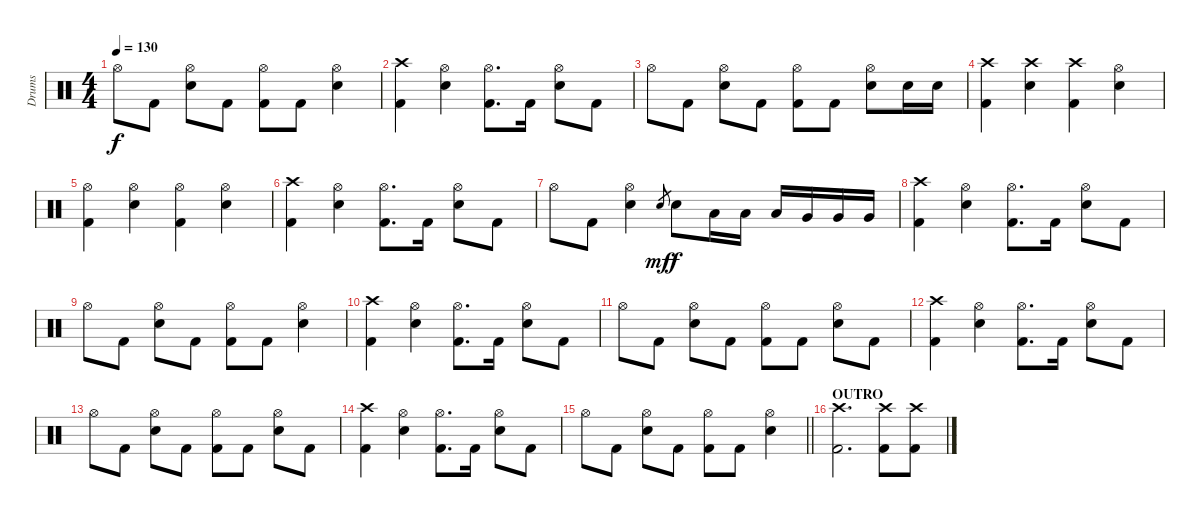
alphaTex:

\track ("Drums" "Drums") {instrument percussion}
\staff {score}
\articulation defaults
\ts (4 4)
\tempo 130
\clef neutral
\ks c "Hi-Hat (open)".8{dy f} "Kick (hit) 2".8
("Hi-Hat (open)" "Electric Snare (hit)").8 "Kick (hit) 2".8 ("Hi-Hat (open)" "Kick (hit) 2").8 "Kick (hit) 2".8 ("Hi-Hat (open)" "Electric Snare (hit)").4 |
("Crash high (hit)" "Kick (hit) 2").4 ("Hi-Hat (open)" "Electric Snare (hit)").4 ("Hi-Hat (open)" "Kick (hit) 2").8{d} "Kick (hit) 2".16 ("Hi-Hat (open)" "Electric Snare (hit)").8 "Kick (hit) 2".8 |
"Hi-Hat (open)".8 "Kick (hit) 2".8 ("Hi-Hat (open)" "Electric Snare (hit)").8 "Kick (hit) 2".8 ("Hi-Hat (open)" "Kick (hit) 2").8 "Kick (hit) 2".8 ("Hi-Hat (open)" "Electric Snare (hit)").8 "Electric Snare (hit)".16 "Electric Snare (hit)".16 |
("Crash high (hit)" "Kick (hit) 2").4 ("Crash high (hit)" "Electric Snare (hit)").4 ("Crash high (hit)" "Kick (hit) 2").4 ("Hi-Hat (open)" "Electric Snare (hit)").4 |
("Hi-Hat (open)" "Kick (hit) 2").4 ("Hi-Hat (open)" "Electric Snare (hit)").4 ("Hi-Hat (open)" "Kick (hit) 2").4 ("Hi-Hat (open)" "Electric Snare (hit)").4 |
("Crash high (hit)" "Kick (hit) 2").4 ("Hi-Hat (open)" "Electric Snare (hit)").4 ("Hi-Hat (open)" "Kick (hit) 2").8{d} "Kick (hit) 2".16 ("Hi-Hat (open)" "Electric Snare (hit)").8 "Kick (hit) 2".8 |
"Hi-Hat (open)".8 "Kick (hit) 2".8 ("Hi-Hat (open)" "Electric Snare (hit)").4 "Electric Snare (hit)".8{gr dy mf} "Electric Snare (hit)".8{dy f} "Low Tom (hit)".16 "Low Tom (hit)".16 "Low Tom (hit)".16 "Very Low Tom (hit)".16 "Very Low Tom (hit)".16 "Very Low Tom (hit)".16 |
("Crash high (hit)" "Kick (hit) 2").4 ("Hi-Hat (open)" "Electric Snare (hit)").4 ("Hi-Hat (open)" "Kick (hit) 2").8{d} "Kick (hit) 2".16 ("Hi-Hat (open)" "Electric Snare (hit)").8 "Kick (hit) 2".8 |
"Hi-Hat (open)".8 "Kick (hit) 2".8 ("Hi-Hat (open)" "Electric Snare (hit)").8 "Kick (hit) 2".8 ("Hi-Hat (open)" "Kick (hit) 2").8 "Kick (hit) 2".8 ("Hi-Hat (open)" "Electric Snare (hit)").4 |
("Crash high (hit)" "Kick (hit) 2").4 ("Hi-Hat (open)" "Electric Snare (hit)").4 ("Hi-Hat (open)" "Kick (hit) 2").8{d} "Kick (hit) 2".16 ("Hi-Hat (open)" "Electric Snare (hit)").8 "Kick (hit) 2".8 |
"Hi-Hat (open)".8 "Kick (hit) 2".8 ("Hi-Hat (open)" "Electric Snare (hit)").8 "Kick (hit) 2".8 ("Hi-Hat (open)" "Kick (hit) 2").8 "Kick (hit) 2".8 ("Hi-Hat (open)" "Electric Snare (hit)").8 "Kick (hit) 2".8 |
("Crash high (hit)" "Kick (hit) 2").4 ("Hi-Hat (open)" "Electric Snare (hit)").4 ("Hi-Hat (open)" "Kick (hit) 2").8{d} "Kick (hit) 2".16 ("Hi-Hat (open)" "Electric Snare (hit)").8 "Kick (hit) 2".8 |
"Hi-Hat (open)".8 "Kick (hit) 2".8 ("Hi-Hat (open)" "Electric Snare (hit)").8 "Kick (hit) 2".8 ("Hi-Hat (open)" "Kick (hit) 2").8 "Kick (hit) 2".8 ("Hi-Hat (open)" "Electric Snare (hit)").8 "Kick (hit) 2".8 |
("Crash high (hit)" "Kick (hit) 2").4 ("Hi-Hat (open)" "Electric Snare (hit)").4 ("Hi-Hat (open)" "Kick (hit) 2").8{d} "Kick (hit) 2".16 ("Hi-Hat (open)" "Electric Snare (hit)").8 "Kick (hit) 2".8 |
\barLineRight lightlight "Hi-Hat (open)".8 "Kick (hit) 2".8
("Hi-Hat (open)" "Electric Snare (hit)").8 "Kick (hit) 2".8 ("Hi-Hat (open)" "Kick (hit) 2").8 "Kick (hit) 2".8 ("Hi-Hat (open)" "Electric Snare (hit)").4 |
\section ("" "OUTRO")
("Crash high (hit)" "Kick (hit) 2").2{d} ("Crash high (hit)" "Kick (hit) 2").8 ("Crash high (hit)" "Kick (hit) 2").8
